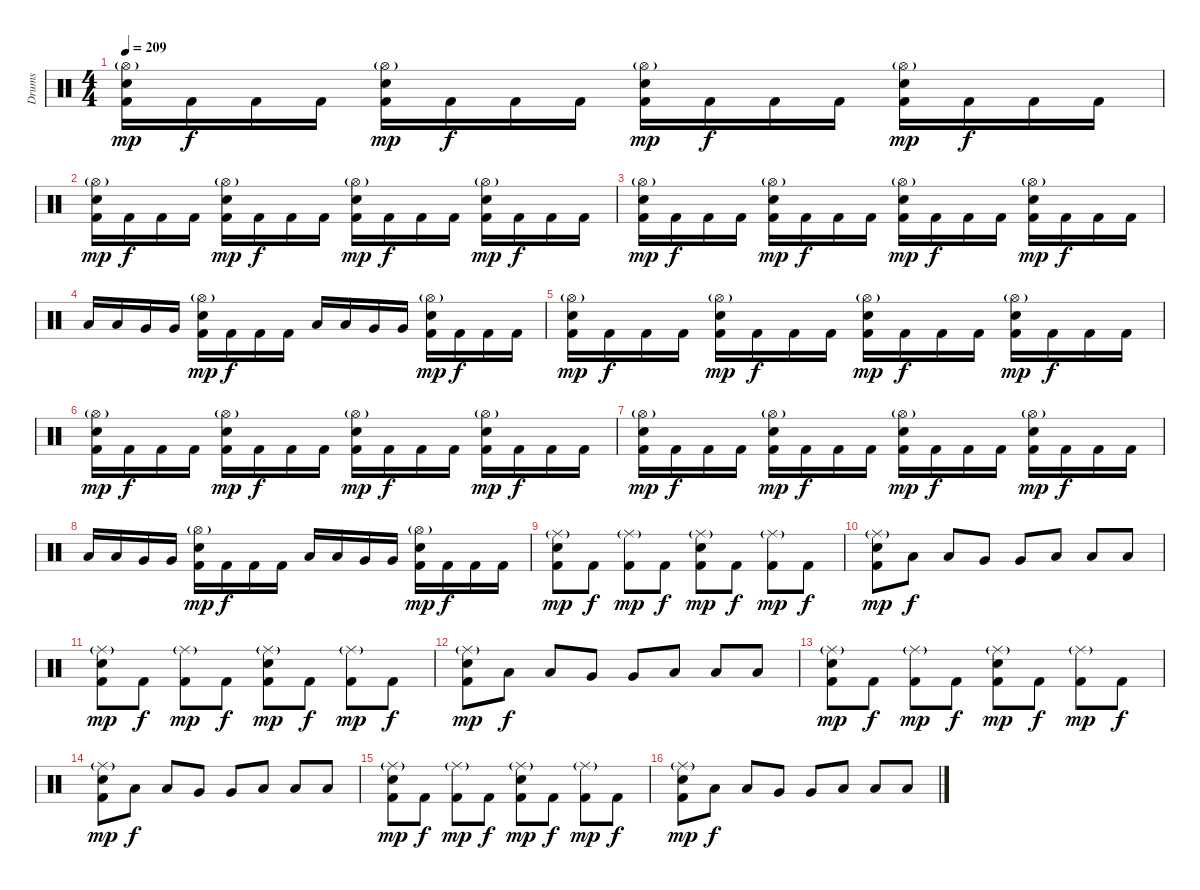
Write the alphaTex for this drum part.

\track ("Drums" "Drums") {instrument percussion}
\staff {score}
\articulation defaults
\ts (4 4)
\tempo 209
\clef neutral
\ks c
("Hi-Hat (open)"{g} "Snare (hit) 2" "Kick (hit) 2").16{dy mp} "Kick (hit) 2".16{dy f} "Kick (hit) 2".16 "Kick (hit) 2".16 ("Hi-Hat (open)"{g} "Snare (hit) 2" "Kick (hit) 2").16{dy mp} "Kick (hit) 2".16{dy f} "Kick (hit) 2".16 "Kick (hit) 2".16 ("Hi-Hat (open)"{g} "Snare (hit) 2" "Kick (hit) 2").16{dy mp} "Kick (hit) 2".16{dy f} "Kick (hit) 2".16 "Kick (hit) 2".16 ("Hi-Hat (open)"{g} "Snare (hit) 2" "Kick (hit) 2").16{dy mp} "Kick (hit) 2".16{dy f} "Kick (hit) 2".16 "Kick (hit) 2".16 |
("Hi-Hat (open)"{g} "Snare (hit) 2" "Kick (hit) 2").16{dy mp} "Kick (hit) 2".16{dy f} "Kick (hit) 2".16 "Kick (hit) 2".16 ("Hi-Hat (open)"{g} "Snare (hit) 2" "Kick (hit) 2").16{dy mp} "Kick (hit) 2".16{dy f} "Kick (hit) 2".16 "Kick (hit) 2".16 ("Hi-Hat (open)"{g} "Snare (hit) 2" "Kick (hit) 2").16{dy mp} "Kick (hit) 2".16{dy f} "Kick (hit) 2".16 "Kick (hit) 2".16 ("Hi-Hat (open)"{g} "Snare (hit) 2" "Kick (hit) 2").16{dy mp} "Kick (hit) 2".16{dy f} "Kick (hit) 2".16 "Kick (hit) 2".16 |
("Hi-Hat (open)"{g} "Snare (hit) 2" "Kick (hit) 2").16{dy mp} "Kick (hit) 2".16{dy f} "Kick (hit) 2".16 "Kick (hit) 2".16 ("Hi-Hat (open)"{g} "Snare (hit) 2" "Kick (hit) 2").16{dy mp} "Kick (hit) 2".16{dy f} "Kick (hit) 2".16 "Kick (hit) 2".16 ("Hi-Hat (open)"{g} "Snare (hit) 2" "Kick (hit) 2").16{dy mp} "Kick (hit) 2".16{dy f} "Kick (hit) 2".16 "Kick (hit) 2".16 ("Hi-Hat (open)"{g} "Snare (hit) 2" "Kick (hit) 2").16{dy mp} "Kick (hit) 2".16{dy f} "Kick (hit) 2".16 "Kick (hit) 2".16 |
"Low Tom (hit)".16 "Low Tom (hit)".16 "Very Low Tom (hit)".16 "Very Low Tom (hit)".16 ("Hi-Hat (open)"{g} "Snare (hit) 2" "Kick (hit) 2").16{dy mp} "Kick (hit) 2".16{dy f} "Kick (hit) 2".16 "Kick (hit) 2".16 "Low Tom (hit)".16 "Low Tom (hit)".16 "Very Low Tom (hit)".16 "Very Low Tom (hit)".16 ("Hi-Hat (open)"{g} "Snare (hit) 2" "Kick (hit) 2").16{dy mp} "Kick (hit) 2".16{dy f} "Kick (hit) 2".16 "Kick (hit) 2".16 |
("Hi-Hat (open)"{g} "Snare (hit) 2" "Kick (hit) 2").16{dy mp} "Kick (hit) 2".16{dy f} "Kick (hit) 2".16 "Kick (hit) 2".16 ("Hi-Hat (open)"{g} "Snare (hit) 2" "Kick (hit) 2").16{dy mp} "Kick (hit) 2".16{dy f} "Kick (hit) 2".16 "Kick (hit) 2".16 ("Hi-Hat (open)"{g} "Snare (hit) 2" "Kick (hit) 2").16{dy mp} "Kick (hit) 2".16{dy f} "Kick (hit) 2".16 "Kick (hit) 2".16 ("Hi-Hat (open)"{g} "Snare (hit) 2" "Kick (hit) 2").16{dy mp} "Kick (hit) 2".16{dy f} "Kick (hit) 2".16 "Kick (hit) 2".16 |
("Hi-Hat (open)"{g} "Snare (hit) 2" "Kick (hit) 2").16{dy mp} "Kick (hit) 2".16{dy f} "Kick (hit) 2".16 "Kick (hit) 2".16 ("Hi-Hat (open)"{g} "Snare (hit) 2" "Kick (hit) 2").16{dy mp} "Kick (hit) 2".16{dy f} "Kick (hit) 2".16 "Kick (hit) 2".16 ("Hi-Hat (open)"{g} "Snare (hit) 2" "Kick (hit) 2").16{dy mp} "Kick (hit) 2".16{dy f} "Kick (hit) 2".16 "Kick (hit) 2".16 ("Hi-Hat (open)"{g} "Snare (hit) 2" "Kick (hit) 2").16{dy mp} "Kick (hit) 2".16{dy f} "Kick (hit) 2".16 "Kick (hit) 2".16 |
("Hi-Hat (open)"{g} "Snare (hit) 2" "Kick (hit) 2").16{dy mp} "Kick (hit) 2".16{dy f} "Kick (hit) 2".16 "Kick (hit) 2".16 ("Hi-Hat (open)"{g} "Snare (hit) 2" "Kick (hit) 2").16{dy mp} "Kick (hit) 2".16{dy f} "Kick (hit) 2".16 "Kick (hit) 2".16 ("Hi-Hat (open)"{g} "Snare (hit) 2" "Kick (hit) 2").16{dy mp} "Kick (hit) 2".16{dy f} "Kick (hit) 2".16 "Kick (hit) 2".16 ("Hi-Hat (open)"{g} "Snare (hit) 2" "Kick (hit) 2").16{dy mp} "Kick (hit) 2".16{dy f} "Kick (hit) 2".16 "Kick (hit) 2".16 |
"Low Tom (hit)".16 "Low Tom (hit)".16 "Very Low Tom (hit)".16 "Very Low Tom (hit)".16 ("Hi-Hat (open)"{g} "Snare (hit) 2" "Kick (hit) 2").16{dy mp} "Kick (hit) 2".16{dy f} "Kick (hit) 2".16 "Kick (hit) 2".16 "Low Tom (hit)".16 "Low Tom (hit)".16 "Very Low Tom (hit)".16 "Very Low Tom (hit)".16 ("Hi-Hat (open)"{g} "Snare (hit) 2" "Kick (hit) 2").16{dy mp} "Kick (hit) 2".16{dy f} "Kick (hit) 2".16 "Kick (hit) 2".16 |
("Ride (middle)"{g} "Snare (hit) 2" "Kick (hit) 2").8{dy mp} "Kick (hit) 2".8{dy f} ("Ride (middle)"{g} "Kick (hit) 2").8{dy mp} "Kick (hit) 2".8{dy f} ("Ride (middle)"{g} "Snare (hit) 2" "Kick (hit) 2").8{dy mp} "Kick (hit) 2".8{dy f} ("Ride (middle)"{g} "Kick (hit) 2").8{dy mp} "Kick (hit) 2".8{dy f} |
("Ride (middle)"{g} "Snare (hit) 2" "Kick (hit) 2").8{dy mp} "Low Tom (hit)".8{dy f} "Low Tom (hit)".8 "Very Low Tom (hit)".8 "Very Low Tom (hit)".8 "Low Floor Tom (hit)".8 "Low Floor Tom (hit)".8 "Low Floor Tom (hit)".8 |
("Ride (middle)"{g} "Snare (hit) 2" "Kick (hit) 2").8{dy mp} "Kick (hit) 2".8{dy f} ("Ride (middle)"{g} "Kick (hit) 2").8{dy mp} "Kick (hit) 2".8{dy f} ("Ride (middle)"{g} "Snare (hit) 2" "Kick (hit) 2").8{dy mp} "Kick (hit) 2".8{dy f} ("Ride (middle)"{g} "Kick (hit) 2").8{dy mp} "Kick (hit) 2".8{dy f} |
("Ride (middle)"{g} "Snare (hit) 2" "Kick (hit) 2").8{dy mp} "Low Tom (hit)".8{dy f} "Low Tom (hit)".8 "Very Low Tom (hit)".8 "Very Low Tom (hit)".8 "Low Floor Tom (hit)".8 "Low Floor Tom (hit)".8 "Low Floor Tom (hit)".8 |
("Ride (middle)"{g} "Snare (hit) 2" "Kick (hit) 2").8{dy mp} "Kick (hit) 2".8{dy f} ("Ride (middle)"{g} "Kick (hit) 2").8{dy mp} "Kick (hit) 2".8{dy f} ("Ride (middle)"{g} "Snare (hit) 2" "Kick (hit) 2").8{dy mp} "Kick (hit) 2".8{dy f} ("Ride (middle)"{g} "Kick (hit) 2").8{dy mp} "Kick (hit) 2".8{dy f} |
("Ride (middle)"{g} "Snare (hit) 2" "Kick (hit) 2").8{dy mp} "Low Tom (hit)".8{dy f} "Low Tom (hit)".8 "Very Low Tom (hit)".8 "Very Low Tom (hit)".8 "Low Floor Tom (hit)".8 "Low Floor Tom (hit)".8 "Low Floor Tom (hit)".8 |
("Ride (middle)"{g} "Snare (hit) 2" "Kick (hit) 2").8{dy mp} "Kick (hit) 2".8{dy f} ("Ride (middle)"{g} "Kick (hit) 2").8{dy mp} "Kick (hit) 2".8{dy f} ("Ride (middle)"{g} "Snare (hit) 2" "Kick (hit) 2").8{dy mp} "Kick (hit) 2".8{dy f} ("Ride (middle)"{g} "Kick (hit) 2").8{dy mp} "Kick (hit) 2".8{dy f} |
("Ride (middle)"{g} "Snare (hit) 2" "Kick (hit) 2").8{dy mp} "Low Tom (hit)".8{dy f} "Low Tom (hit)".8 "Very Low Tom (hit)".8 "Very Low Tom (hit)".8 "Low Floor Tom (hit)".8 "Low Floor Tom (hit)".8 "Low Floor Tom (hit)".8
